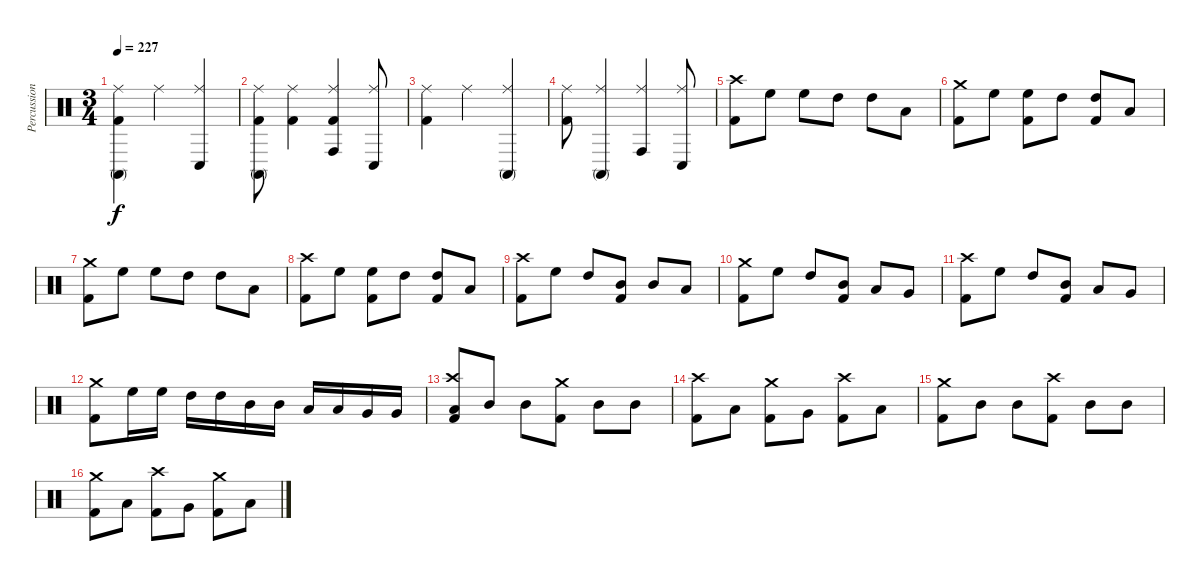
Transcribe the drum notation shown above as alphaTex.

\track ("Percussion" "Percussion") {instrument percussion}
\staff {score}
\articulation defaults
\ts (3 4)
\tempo 227
\clef neutral
\ks c
("Ride (middle)" "Conga high (mute)" "Kick (hit) 2").4{dy f} "Ride (middle)".4 ("Ride (middle)" "Conga low (hit)").4 |
("Ride (middle)" "Conga high (mute)" "Kick (hit) 2").8 ("Ride (middle)" "Kick (hit) 2").4 ("Ride (middle)" "Conga high (hit)" "Kick (hit) 2").4 ("Ride (middle)" "Conga low (hit)").8 |
("Ride (middle)" "Kick (hit) 2").4 "Ride (middle)".4 ("Ride (middle)" "Conga high (mute)").4 |
("Ride (middle)" "Kick (hit) 2").8 ("Ride (middle)" "Conga high (mute)").4 ("Ride (middle)" "Conga high (hit)").4 ("Ride (middle)" "Conga low (hit)").8 |
("Crash high (hit)" "Kick (hit) 2").8 "High Floor Tom (hit)".8 "High Floor Tom (hit)".8 "High Tom (hit)".8 "High Tom (hit)".8 "Low Tom (hit)".8 |
("Crash medium (hit)" "Kick (hit) 2").8 "High Floor Tom (hit)".8 ("High Floor Tom (hit)" "Kick (hit) 2").8 "High Tom (hit)".8 ("High Tom (hit)" "Kick (hit) 2").8 "Low Tom (hit)".8 |
("Crash medium (hit)" "Kick (hit) 2").8 "High Floor Tom (hit)".8 "High Floor Tom (hit)".8 "High Tom (hit)".8 "High Tom (hit)".8 "Low Tom (hit)".8 |
("Crash high (hit)" "Kick (hit) 2").8 "High Floor Tom (hit)".8 ("High Floor Tom (hit)" "Kick (hit) 2").8 "High Tom (hit)".8 ("High Tom (hit)" "Kick (hit) 2").8 "Low Tom (hit)".8 |
("Crash high (hit)" "Kick (hit) 2").8 "High Floor Tom (hit)".8 "High Tom (hit)".8 ("Mid Tom (hit)" "Kick (hit) 2").8 "Mid Tom (hit)".8 "Low Tom (hit)".8 |
("Crash medium (hit)" "Kick (hit) 2").8 "High Floor Tom (hit)".8 "High Tom (hit)".8 ("Mid Tom (hit)" "Kick (hit) 2").8 "Low Tom (hit)".8 "Very Low Tom (hit)".8 |
("Crash high (hit)" "Kick (hit) 2").8 "High Floor Tom (hit)".8 "High Tom (hit)".8 ("Mid Tom (hit)" "Kick (hit) 2").8 "Low Tom (hit)".8 "Very Low Tom (hit)".8 |
("Crash medium (hit)" "Kick (hit) 2").8 "High Floor Tom (hit)".16 "High Floor Tom (hit)".16 "High Tom (hit)".16 "High Tom (hit)".16 "Mid Tom (hit)".16 "Mid Tom (hit)".16 "Low Tom (hit)".16 "Low Tom (hit)".16 "Very Low Tom (hit)".16 "Very Low Tom (hit)".16 |
("Crash high (hit)" "Low Floor Tom (hit)" "Kick (hit) 2").8 "Mid Tom (hit)".8 "Mid Tom (hit)".8 ("Crash medium (hit)" "Kick (hit) 2").8 "Mid Tom (hit)".8 "Mid Tom (hit)".8 |
("Crash high (hit)" "Kick (hit) 2").8 "Low Tom (hit)".8 ("Crash medium (hit)" "Kick (hit) 2").8 "Very Low Tom (hit)".8 ("Crash high (hit)" "Kick (hit) 2").8 "Low Floor Tom (hit)".8 |
("Crash medium (hit)" "Kick (hit) 2").8 "Mid Tom (hit)".8 "Mid Tom (hit)".8 ("Crash high (hit)" "Kick (hit) 2").8 "Mid Tom (hit)".8 "Mid Tom (hit)".8 |
("Crash medium (hit)" "Kick (hit) 2").8 "Low Tom (hit)".8 ("Crash high (hit)" "Kick (hit) 2").8 "Very Low Tom (hit)".8 ("Crash medium (hit)" "Kick (hit) 2").8 "Low Floor Tom (hit)".8
